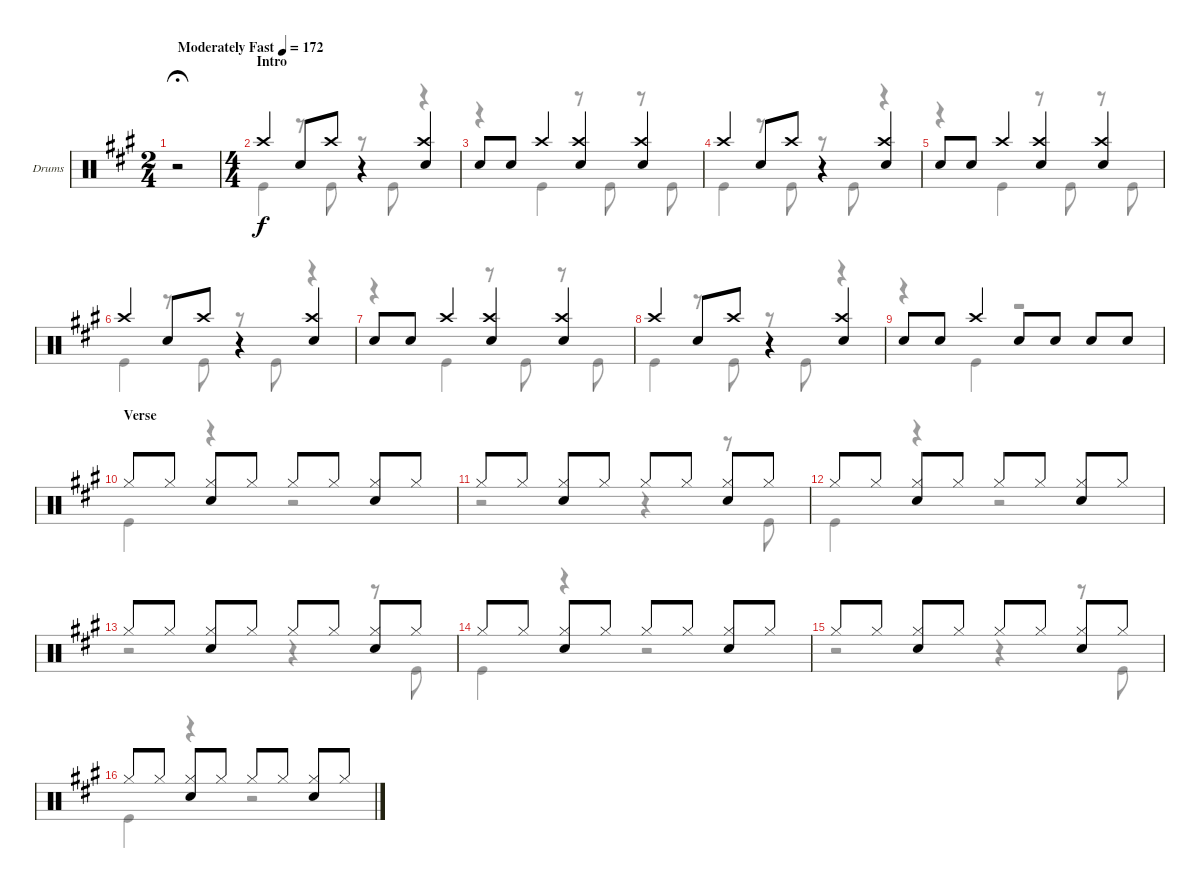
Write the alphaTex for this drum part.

\defaultSystemsLayout 4
\bracketExtendMode groupsimilarinstruments
\firstSystemTrackNameOrientation horizontal
\otherSystemsTrackNameOrientation horizontal
\track ("Taylor Hawkins" "Drums") {instrument percussion}
\staff {score}
\articulation defaults
\voice
\ts (2 4)
\tempo (172 "Moderately Fast")
\clef neutral
\ks a
r.2{dy f fermata (medium 0.5)} |
\ts (4 4)
\section ("" "Intro")
\scale
0.472222 "Crash high (hit)".4 "Snare (hit) 2".8 "Crash high (hit)".8 r.4 ("Crash high (hit)" "Snare (hit) 2").4 |
\scale
0.263889 "Snare (hit) 2".8 "Snare (hit) 2".8 "Crash high (hit)".4 ("Crash high (hit)" "Snare (hit) 2").4 ("Crash high (hit)" "Snare (hit) 2").4 |
\scale
0.263889 "Crash high (hit)".4 "Snare (hit) 2".8 "Crash high (hit)".8 r.4 ("Crash high (hit)" "Snare (hit) 2").4 |
\scale
0.333333 "Snare (hit) 2".8 "Snare (hit) 2".8 "Crash high (hit)".4 ("Crash high (hit)" "Snare (hit) 2").4 ("Crash high (hit)" "Snare (hit) 2").4 |
\scale
0.333333 "Crash high (hit)".4 "Snare (hit) 2".8 "Crash high (hit)".8 r.4 ("Crash high (hit)" "Snare (hit) 2").4 |
\scale
0.333333 "Snare (hit) 2".8 "Snare (hit) 2".8 "Crash high (hit)".4 ("Crash high (hit)" "Snare (hit) 2").4 ("Crash high (hit)" "Snare (hit) 2").4 |
\scale
0.311475 "Crash high (hit)".4 "Snare (hit) 2".8 "Crash high (hit)".8 r.4 ("Crash high (hit)" "Snare (hit) 2").4 |
\scale
0.311475 "Snare (hit) 2".8 "Snare (hit) 2".8 "Crash high (hit)".4 "Snare (hit) 2".8 "Snare (hit) 2".8 "Snare (hit) 2".8 "Snare (hit) 2".8 |
\section ("" "Verse")
\scale
0.377049 "Hi-Hat (closed)".8 "Hi-Hat (closed)".8 ("Hi-Hat (closed)" "Snare (hit) 2").8 "Hi-Hat (closed)".8 "Hi-Hat (closed)".8 "Hi-Hat (closed)".8 ("Hi-Hat (closed)" "Snare (hit) 2").8 "Hi-Hat (closed)".8 |
\scale
0.333333 "Hi-Hat (closed)".8 "Hi-Hat (closed)".8 ("Hi-Hat (closed)" "Snare (hit) 2").8 "Hi-Hat (closed)".8 "Hi-Hat (closed)".8 "Hi-Hat (closed)".8 ("Hi-Hat (closed)" "Snare (hit) 2").8 "Hi-Hat (closed)".8 |
\scale
0.333333 "Hi-Hat (closed)".8 "Hi-Hat (closed)".8 ("Hi-Hat (closed)" "Snare (hit) 2").8 "Hi-Hat (closed)".8 "Hi-Hat (closed)".8 "Hi-Hat (closed)".8 ("Hi-Hat (closed)" "Snare (hit) 2").8 "Hi-Hat (closed)".8 |
\scale
0.333333 "Hi-Hat (closed)".8 "Hi-Hat (closed)".8 ("Hi-Hat (closed)" "Snare (hit) 2").8 "Hi-Hat (closed)".8 "Hi-Hat (closed)".8 "Hi-Hat (closed)".8 ("Hi-Hat (closed)" "Snare (hit) 2").8 "Hi-Hat (closed)".8 |
\scale
0.333333 "Hi-Hat (closed)".8 "Hi-Hat (closed)".8 ("Hi-Hat (closed)" "Snare (hit) 2").8 "Hi-Hat (closed)".8 "Hi-Hat (closed)".8 "Hi-Hat (closed)".8 ("Hi-Hat (closed)" "Snare (hit) 2").8 "Hi-Hat (closed)".8 |
\scale
0.333333 "Hi-Hat (closed)".8 "Hi-Hat (closed)".8 ("Hi-Hat (closed)" "Snare (hit) 2").8 "Hi-Hat (closed)".8 "Hi-Hat (closed)".8 "Hi-Hat (closed)".8 ("Hi-Hat (closed)" "Snare (hit) 2").8 "Hi-Hat (closed)".8 |
\scale
0.333333 "Hi-Hat (closed)".8 "Hi-Hat (closed)".8 ("Hi-Hat (closed)" "Snare (hit) 2").8 "Hi-Hat (closed)".8 "Hi-Hat (closed)".8 "Hi-Hat (closed)".8 ("Hi-Hat (closed)" "Snare (hit) 2").8 "Hi-Hat (closed)".8
\voice
\clef neutral
\ottava regular
\simile none
\ks a
|
\scale
0.472222 "Kick (hit)".4 r.8 "Kick (hit)".8 r.8 "Kick (hit)".8 r.4 |
\scale
0.263889 r.4 "Kick (hit)".4 r.8 "Kick (hit)".8 r.8 "Kick (hit)".8 |
\scale
0.263889 "Kick (hit)".4 r.8 "Kick (hit)".8 r.8 "Kick (hit)".8 r.4 |
\scale
0.333333 r.4 "Kick (hit)".4 r.8 "Kick (hit)".8 r.8 "Kick (hit)".8 |
\scale
0.333333 "Kick (hit)".4 r.8 "Kick (hit)".8 r.8 "Kick (hit)".8 r.4 |
\scale
0.333333 r.4 "Kick (hit)".4 r.8 "Kick (hit)".8 r.8 "Kick (hit)".8 |
\scale
0.311475 "Kick (hit)".4 r.8 "Kick (hit)".8 r.8 "Kick (hit)".8 r.4 |
\scale
0.311475 r.4 "Kick (hit)".4 r.2 |
\scale
0.377049 "Kick (hit)".4 r.4 r.2 |
\scale
0.333333 r.2 r.4 r.8 "Kick (hit)".8 |
\scale
0.333333 "Kick (hit)".4 r.4 r.2 |
\scale
0.333333 r.2 r.4 r.8 "Kick (hit)".8 |
\scale
0.333333 "Kick (hit)".4 r.4 r.2 |
\scale
0.333333 r.2 r.4 r.8 "Kick (hit)".8 |
\scale
0.333333 "Kick (hit)".4 r.4 r.2
